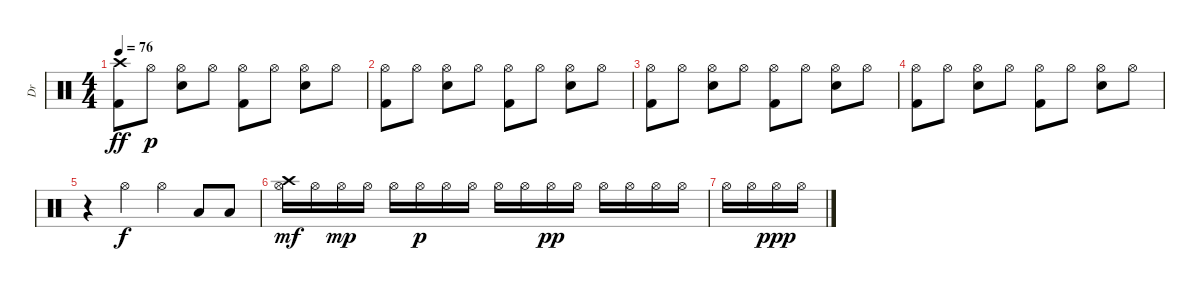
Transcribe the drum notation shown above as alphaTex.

\track ("Dr" "Dr") {instrument percussion}
\staff {score}
\articulation defaults
\ts (4 4)
\tempo 76
\clef neutral
\ks c
("Kick (hit) 2" "Crash high (hit)").8{dy ff} "Hi-Hat (open)".8{dy p} ("Hi-Hat (open)" "Snare (hit) 2").8 "Hi-Hat (open)".8 ("Kick (hit) 2" "Hi-Hat (open)").8 "Hi-Hat (open)".8 ("Snare (hit) 2" "Hi-Hat (open)").8 "Hi-Hat (open)".8 |
("Kick (hit) 2" "Hi-Hat (open)").8 "Hi-Hat (open)".8 ("Hi-Hat (open)" "Snare (hit) 2").8 "Hi-Hat (open)".8 ("Kick (hit) 2" "Hi-Hat (open)").8 "Hi-Hat (open)".8 ("Snare (hit) 2" "Hi-Hat (open)").8 "Hi-Hat (open)".8 |
("Kick (hit) 2" "Hi-Hat (open)").8 "Hi-Hat (open)".8 ("Hi-Hat (open)" "Snare (hit) 2").8 "Hi-Hat (open)".8 ("Kick (hit) 2" "Hi-Hat (open)").8 "Hi-Hat (open)".8 ("Snare (hit) 2" "Hi-Hat (open)").8 "Hi-Hat (open)".8 |
("Kick (hit) 2" "Hi-Hat (open)").8 "Hi-Hat (open)".8 ("Hi-Hat (open)" "Snare (hit) 2").8 "Hi-Hat (open)".8 ("Kick (hit) 2" "Hi-Hat (open)").8 "Hi-Hat (open)".8 ("Snare (hit) 2" "Hi-Hat (open)").8 "Hi-Hat (open)".8 |
r.4 "Hi-Hat (open)".4{dy f} "Hi-Hat (open)".4 "Low Tom (hit)".8 "Low Floor Tom (hit)".8 |
("Crash high (hit)" "Hi-Hat (open)").16{dy mf} "Hi-Hat (open)".16 "Hi-Hat (open)".16{dy mp} "Hi-Hat (open)".16 "Hi-Hat (open)".16 "Hi-Hat (open)".16{dy p} "Hi-Hat (open)".16 "Hi-Hat (open)".16 "Hi-Hat (open)".16 "Hi-Hat (open)".16 "Hi-Hat (open)".16{dy pp} "Hi-Hat (open)".16 "Hi-Hat (open)".16 "Hi-Hat (open)".16 "Hi-Hat (open)".16 "Hi-Hat (open)".16 |
"Hi-Hat (open)".16 "Hi-Hat (open)".16 "Hi-Hat (open)".16{dy ppp} "Hi-Hat (open)".16
